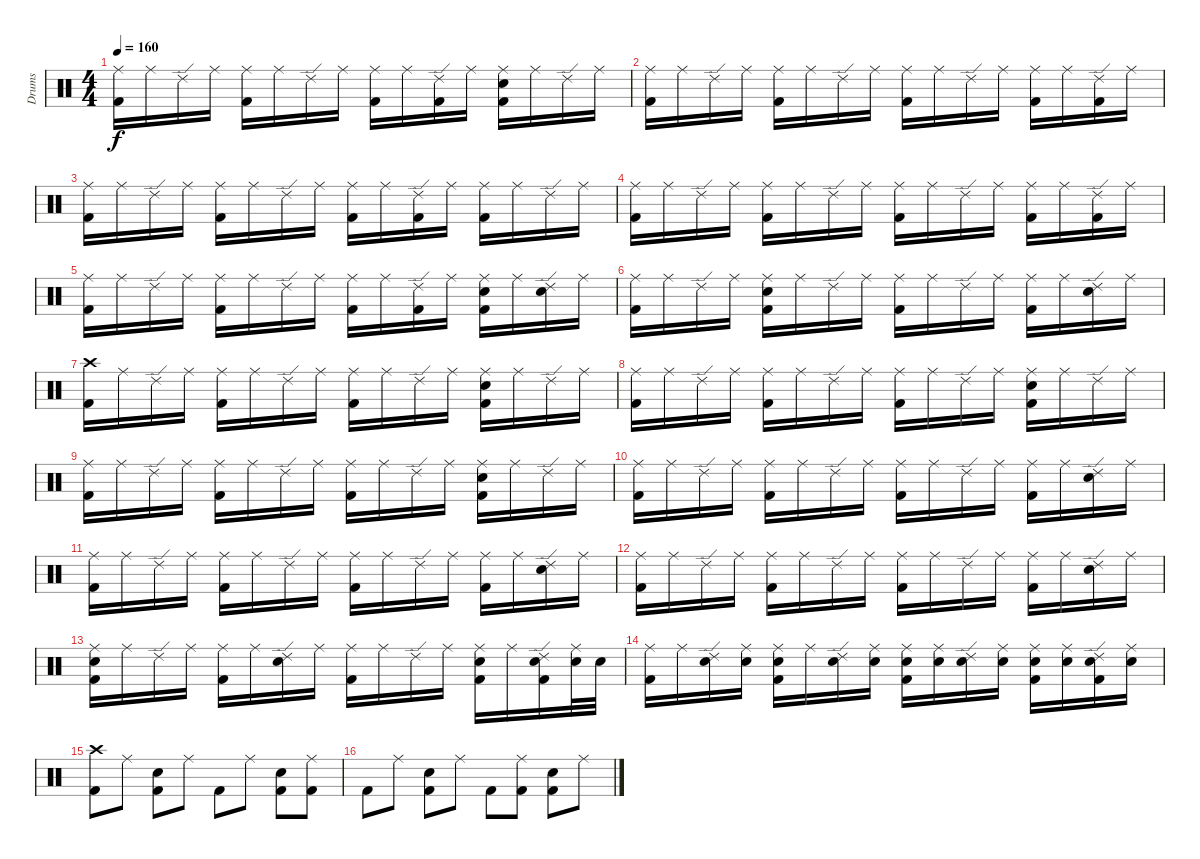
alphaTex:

\track ("Drums" "Drums") {instrument percussion}
\staff {score}
\articulation defaults
\ts (4 4)
\tempo 160
\clef neutral
\ks c
("Ride (middle)" "Kick (hit) 2").16{dy f} "Ride (middle)".16 "Ride (edge) 2".16 "Ride (middle)".16 ("Ride (middle)" "Kick (hit) 2").16 "Ride (middle)".16 "Ride (edge) 2".16 "Ride (middle)".16 ("Ride (middle)" "Kick (hit) 2").16 "Ride (middle)".16 ("Ride (edge) 2" "Kick (hit) 2").16 "Ride (middle)".16 ("Ride (middle)" "Electric Snare (hit)" "Kick (hit) 2").16 "Ride (middle)".16 "Ride (edge) 2".16 "Ride (middle)".16 |
("Ride (middle)" "Kick (hit) 2").16 "Ride (middle)".16 "Ride (edge) 2".16 "Ride (middle)".16 ("Ride (middle)" "Kick (hit) 2").16 "Ride (middle)".16 "Ride (edge) 2".16 "Ride (middle)".16 ("Ride (middle)" "Kick (hit) 2").16 "Ride (middle)".16 "Ride (edge) 2".16 "Ride (middle)".16 ("Ride (middle)" "Kick (hit) 2").16 "Ride (middle)".16 ("Ride (edge) 2" "Kick (hit) 2").16 "Ride (middle)".16 |
("Ride (middle)" "Kick (hit) 2").16 "Ride (middle)".16 "Ride (edge) 2".16 "Ride (middle)".16 ("Ride (middle)" "Kick (hit) 2").16 "Ride (middle)".16 "Ride (edge) 2".16 "Ride (middle)".16 ("Ride (middle)" "Kick (hit) 2").16 "Ride (middle)".16 ("Ride (edge) 2" "Kick (hit) 2").16 "Ride (middle)".16 ("Ride (middle)" "Kick (hit) 2").16 "Ride (middle)".16 "Ride (edge) 2".16 "Ride (middle)".16 |
("Ride (middle)" "Kick (hit) 2").16 "Ride (middle)".16 "Ride (edge) 2".16 "Ride (middle)".16 ("Ride (middle)" "Kick (hit) 2").16 "Ride (middle)".16 "Ride (edge) 2".16 "Ride (middle)".16 ("Ride (middle)" "Kick (hit) 2").16 "Ride (middle)".16 "Ride (edge) 2".16 "Ride (middle)".16 ("Ride (middle)" "Kick (hit) 2").16 "Ride (middle)".16 ("Ride (edge) 2" "Kick (hit) 2").16 "Ride (middle)".16 |
("Ride (middle)" "Kick (hit) 2").16 "Ride (middle)".16 "Ride (edge) 2".16 "Ride (middle)".16 ("Ride (middle)" "Kick (hit) 2").16 "Ride (middle)".16 "Ride (edge) 2".16 "Ride (middle)".16 ("Ride (middle)" "Kick (hit) 2").16 "Ride (middle)".16 ("Ride (edge) 2" "Kick (hit) 2").16 "Ride (middle)".16 ("Ride (middle)" "Electric Snare (hit)" "Kick (hit) 2").16 "Ride (middle)".16 ("Ride (edge) 2" "Electric Snare (hit)").16 "Ride (middle)".16 |
("Ride (middle)" "Kick (hit) 2").16 "Ride (middle)".16 "Ride (edge) 2".16 "Ride (middle)".16 ("Ride (middle)" "Electric Snare (hit)" "Kick (hit) 2").16 "Ride (middle)".16 "Ride (edge) 2".16 "Ride (middle)".16 ("Ride (middle)" "Kick (hit) 2").16 "Ride (middle)".16 "Ride (edge) 2".16 "Ride (middle)".16 ("Ride (middle)" "Kick (hit) 2").16 "Ride (middle)".16 ("Ride (edge) 2" "Electric Snare (hit)").16 "Ride (middle)".16 |
("Crash high (hit)" "Kick (hit) 2").16 "Ride (middle)".16 "Ride (edge) 2".16 "Ride (middle)".16 ("Ride (middle)" "Kick (hit) 2").16 "Ride (middle)".16 "Ride (edge) 2".16 "Ride (middle)".16 ("Ride (middle)" "Kick (hit) 2").16 "Ride (middle)".16 "Ride (edge) 2".16 "Ride (middle)".16 ("Ride (middle)" "Electric Snare (hit)" "Kick (hit) 2").16 "Ride (middle)".16 "Ride (edge) 2".16 "Ride (middle)".16 |
("Ride (middle)" "Kick (hit) 2").16 "Ride (middle)".16 "Ride (edge) 2".16 "Ride (middle)".16 ("Ride (middle)" "Kick (hit) 2").16 "Ride (middle)".16 "Ride (edge) 2".16 "Ride (middle)".16 ("Ride (middle)" "Kick (hit) 2").16 "Ride (middle)".16 "Ride (edge) 2".16 "Ride (middle)".16 ("Ride (middle)" "Electric Snare (hit)" "Kick (hit) 2").16 "Ride (middle)".16 "Ride (edge) 2".16 "Ride (middle)".16 |
("Ride (middle)" "Kick (hit) 2").16 "Ride (middle)".16 "Ride (edge) 2".16 "Ride (middle)".16 ("Ride (middle)" "Kick (hit) 2").16 "Ride (middle)".16 "Ride (edge) 2".16 "Ride (middle)".16 ("Ride (middle)" "Kick (hit) 2").16 "Ride (middle)".16 "Ride (edge) 2".16 "Ride (middle)".16 ("Ride (middle)" "Electric Snare (hit)" "Kick (hit) 2").16 "Ride (middle)".16 "Ride (edge) 2".16 "Ride (middle)".16 |
("Ride (middle)" "Kick (hit) 2").16 "Ride (middle)".16 "Ride (edge) 2".16 "Ride (middle)".16 ("Ride (middle)" "Kick (hit) 2").16 "Ride (middle)".16 "Ride (edge) 2".16 "Ride (middle)".16 ("Ride (middle)" "Kick (hit) 2").16 "Ride (middle)".16 "Ride (edge) 2".16 "Ride (middle)".16 ("Ride (middle)" "Kick (hit) 2").16 "Ride (middle)".16 ("Ride (edge) 2" "Electric Snare (hit)").16 "Ride (middle)".16 |
("Ride (middle)" "Kick (hit) 2").16 "Ride (middle)".16 "Ride (edge) 2".16 "Ride (middle)".16 ("Ride (middle)" "Kick (hit) 2").16 "Ride (middle)".16 "Ride (edge) 2".16 "Ride (middle)".16 ("Ride (middle)" "Kick (hit) 2").16 "Ride (middle)".16 "Ride (edge) 2".16 "Ride (middle)".16 ("Ride (middle)" "Kick (hit) 2").16 "Ride (middle)".16 ("Ride (edge) 2" "Electric Snare (hit)").16 "Ride (middle)".16 |
("Ride (middle)" "Kick (hit) 2").16 "Ride (middle)".16 "Ride (edge) 2".16 "Ride (middle)".16 ("Ride (middle)" "Kick (hit) 2").16 "Ride (middle)".16 "Ride (edge) 2".16 "Ride (middle)".16 ("Ride (middle)" "Kick (hit) 2").16 "Ride (middle)".16 "Ride (edge) 2".16 "Ride (middle)".16 ("Ride (middle)" "Kick (hit) 2").16 "Ride (middle)".16 ("Ride (edge) 2" "Electric Snare (hit)").16 "Ride (middle)".16 |
("Ride (middle)" "Electric Snare (hit)" "Kick (hit) 2").16 "Ride (middle)".16 "Ride (edge) 2".16 "Ride (middle)".16 ("Ride (middle)" "Kick (hit) 2").16 "Ride (middle)".16 ("Ride (edge) 2" "Electric Snare (hit)").16 "Ride (middle)".16 ("Ride (middle)" "Kick (hit) 2").16 "Ride (middle)".16 "Ride (edge) 2".16 "Ride (middle)".16 ("Ride (middle)" "Electric Snare (hit)" "Kick (hit) 2").16 "Ride (middle)".16 ("Ride (edge) 2" "Electric Snare (hit)" "Kick (hit) 2").16 ("Ride (middle)" "Electric Snare (hit)").32 "Electric Snare (hit)".32 |
("Ride (middle)" "Kick (hit) 2").16 "Ride (middle)".16 ("Ride (edge) 2" "Electric Snare (hit)").16 ("Ride (middle)" "Electric Snare (hit)").16 ("Ride (middle)" "Electric Snare (hit)" "Kick (hit) 2").16 "Ride (middle)".16 ("Ride (edge) 2" "Electric Snare (hit)").16 ("Ride (middle)" "Electric Snare (hit)").16 ("Ride (middle)" "Electric Snare (hit)" "Kick (hit) 2").16 ("Ride (middle)" "Electric Snare (hit)").16 ("Ride (edge) 2" "Electric Snare (hit)").16 ("Ride (middle)" "Electric Snare (hit)").16 ("Ride (middle)" "Electric Snare (hit)" "Kick (hit) 2").16 ("Ride (middle)" "Electric Snare (hit)").16 ("Ride (edge) 2" "Electric Snare (hit)" "Kick (hit) 2").16 ("Ride (middle)" "Electric Snare (hit)").16 |
("Crash high (hit)" "Kick (hit) 2").8 "Ride (middle)".8 ("Electric Snare (hit)" "Kick (hit) 2").8 "Ride (middle)".8 "Kick (hit) 2".8 "Ride (middle)".8 ("Electric Snare (hit)" "Kick (hit) 2").8 ("Ride (middle)" "Kick (hit) 2").8 |
"Kick (hit) 2".8 "Ride (middle)".8 ("Electric Snare (hit)" "Kick (hit) 2").8 "Ride (middle)".8 "Kick (hit) 2".8 ("Ride (middle)" "Kick (hit) 2").8 ("Electric Snare (hit)" "Kick (hit) 2").8 "Ride (middle)".8
